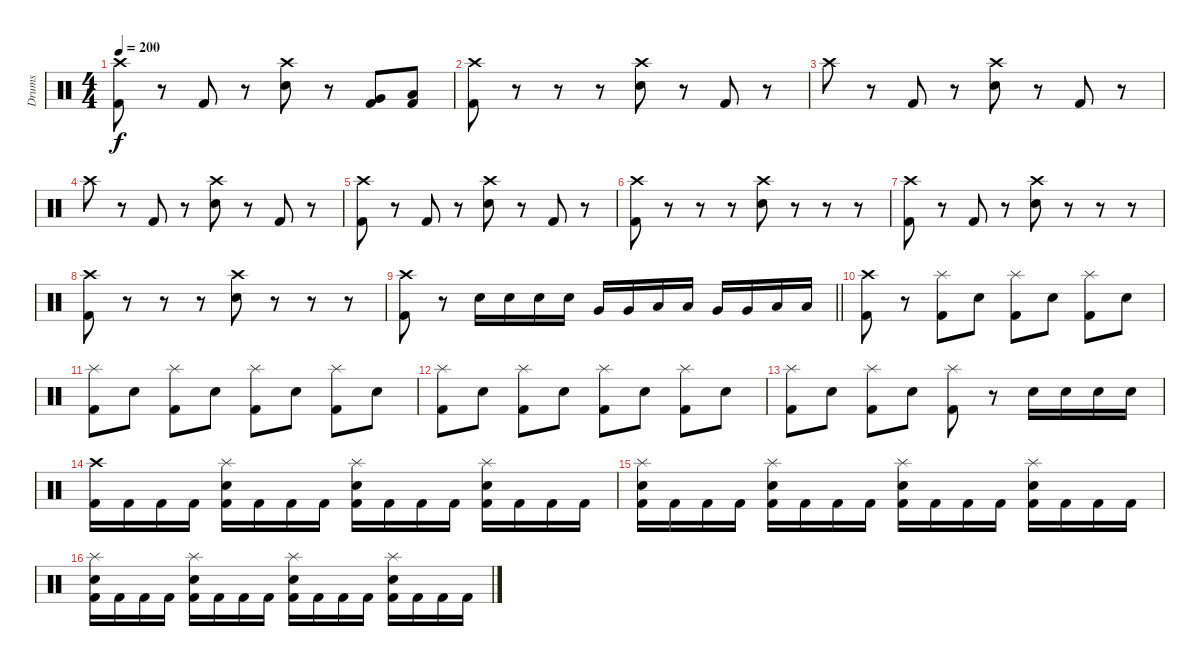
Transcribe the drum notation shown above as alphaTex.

\track ("Drums" "Drums") {instrument percussion}
\staff {score}
\articulation defaults
\ts (4 4)
\tempo 200
\clef neutral
\ks c
("Crash high (hit)" "Kick (hit) 2").8{dy f} r.8 "Kick (hit) 2".8 r.8 ("Crash high (hit)" "Electric Snare (hit)").8 r.8 ("Very Low Tom (hit)" "Kick (hit) 2").8 ("Low Floor Tom (hit)" "Kick (hit) 2").8 |
("Crash high (hit)" "Kick (hit) 2").8 r.8 r.8 r.8 ("Crash high (hit)" "Electric Snare (hit)").8 r.8 "Kick (hit) 2".8 r.8 |
"Crash high (hit)".8 r.8 "Kick (hit) 2".8 r.8 ("Crash high (hit)" "Electric Snare (hit)").8 r.8 "Kick (hit) 2".8 r.8 |
"Crash high (hit)".8 r.8 "Kick (hit) 2".8 r.8 ("Crash high (hit)" "Electric Snare (hit)").8 r.8 "Kick (hit) 2".8 r.8 |
("Crash high (hit)" "Kick (hit) 2").8 r.8 "Kick (hit) 2".8 r.8 ("Crash high (hit)" "Electric Snare (hit)").8 r.8 "Kick (hit) 2".8 r.8 |
("Crash high (hit)" "Kick (hit) 2").8 r.8 r.8 r.8 ("Crash high (hit)" "Electric Snare (hit)").8 r.8 r.8 r.8 |
("Crash high (hit)" "Kick (hit) 2").8 r.8 "Kick (hit) 2".8 r.8 ("Crash high (hit)" "Electric Snare (hit)").8 r.8 r.8 r.8 |
("Crash high (hit)" "Kick (hit) 2").8 r.8 r.8 r.8 ("Crash high (hit)" "Electric Snare (hit)").8 r.8 r.8 r.8 |
\barLineRight lightlight
("Crash high (hit)" "Kick (hit) 2").8 r.8 "Electric Snare (hit)".16 "Electric Snare (hit)".16 "Electric Snare (hit)".16 "Electric Snare (hit)".16 "Very Low Tom (hit)".16 "Very Low Tom (hit)".16 "Low Tom (hit)".16 "Low Tom (hit)".16 "Very Low Tom (hit)".16 "Very Low Tom (hit)".16 "Low Floor Tom (hit)".16 "Low Floor Tom (hit)".16 |
("Crash high (hit)" "Kick (hit) 2").8 r.8 ("Splash (hit)" "Kick (hit) 2").8 "Electric Snare (hit)".8 ("Splash (hit)" "Kick (hit) 2").8 "Electric Snare (hit)".8 ("Splash (hit)" "Kick (hit) 2").8 "Electric Snare (hit)".8 |
("Splash (hit)" "Kick (hit) 2").8 "Electric Snare (hit)".8 ("Splash (hit)" "Kick (hit) 2").8 "Electric Snare (hit)".8 ("Splash (hit)" "Kick (hit) 2").8 "Electric Snare (hit)".8 ("Splash (hit)" "Kick (hit) 2").8 "Electric Snare (hit)".8 |
("Splash (hit)" "Kick (hit) 2").8 "Electric Snare (hit)".8 ("Splash (hit)" "Kick (hit) 2").8 "Electric Snare (hit)".8 ("Splash (hit)" "Kick (hit) 2").8 "Electric Snare (hit)".8 ("Splash (hit)" "Kick (hit) 2").8 "Electric Snare (hit)".8 |
("Splash (hit)" "Kick (hit) 2").8 "Electric Snare (hit)".8 ("Splash (hit)" "Kick (hit) 2").8 "Electric Snare (hit)".8 ("Splash (hit)" "Kick (hit) 2").8 r.8 "Electric Snare (hit)".16 "Electric Snare (hit)".16 "Electric Snare (hit)".16 "Electric Snare (hit)".16 |
("Crash high (hit)" "Kick (hit) 2").16 "Kick (hit) 2".16 "Kick (hit) 2".16 "Kick (hit) 2".16 ("Splash (hit)" "Electric Snare (hit)" "Kick (hit) 2").16 "Kick (hit) 2".16 "Kick (hit) 2".16 "Kick (hit) 2".16 ("Splash (hit)" "Electric Snare (hit)" "Kick (hit) 2").16 "Kick (hit) 2".16 "Kick (hit) 2".16 "Kick (hit) 2".16 ("Splash (hit)" "Electric Snare (hit)" "Kick (hit) 2").16 "Kick (hit) 2".16 "Kick (hit) 2".16 "Kick (hit) 2".16 |
("Splash (hit)" "Electric Snare (hit)" "Kick (hit) 2").16 "Kick (hit) 2".16 "Kick (hit) 2".16 "Kick (hit) 2".16 ("Splash (hit)" "Electric Snare (hit)" "Kick (hit) 2").16 "Kick (hit) 2".16 "Kick (hit) 2".16 "Kick (hit) 2".16 ("Splash (hit)" "Electric Snare (hit)" "Kick (hit) 2").16 "Kick (hit) 2".16 "Kick (hit) 2".16 "Kick (hit) 2".16 ("Splash (hit)" "Electric Snare (hit)" "Kick (hit) 2").16 "Kick (hit) 2".16 "Kick (hit) 2".16 "Kick (hit) 2".16 |
("Splash (hit)" "Electric Snare (hit)" "Kick (hit) 2").16 "Kick (hit) 2".16 "Kick (hit) 2".16 "Kick (hit) 2".16 ("Splash (hit)" "Electric Snare (hit)" "Kick (hit) 2").16 "Kick (hit) 2".16 "Kick (hit) 2".16 "Kick (hit) 2".16 ("Splash (hit)" "Electric Snare (hit)" "Kick (hit) 2").16 "Kick (hit) 2".16 "Kick (hit) 2".16 "Kick (hit) 2".16 ("Splash (hit)" "Electric Snare (hit)" "Kick (hit) 2").16 "Kick (hit) 2".16 "Kick (hit) 2".16 "Kick (hit) 2".16
